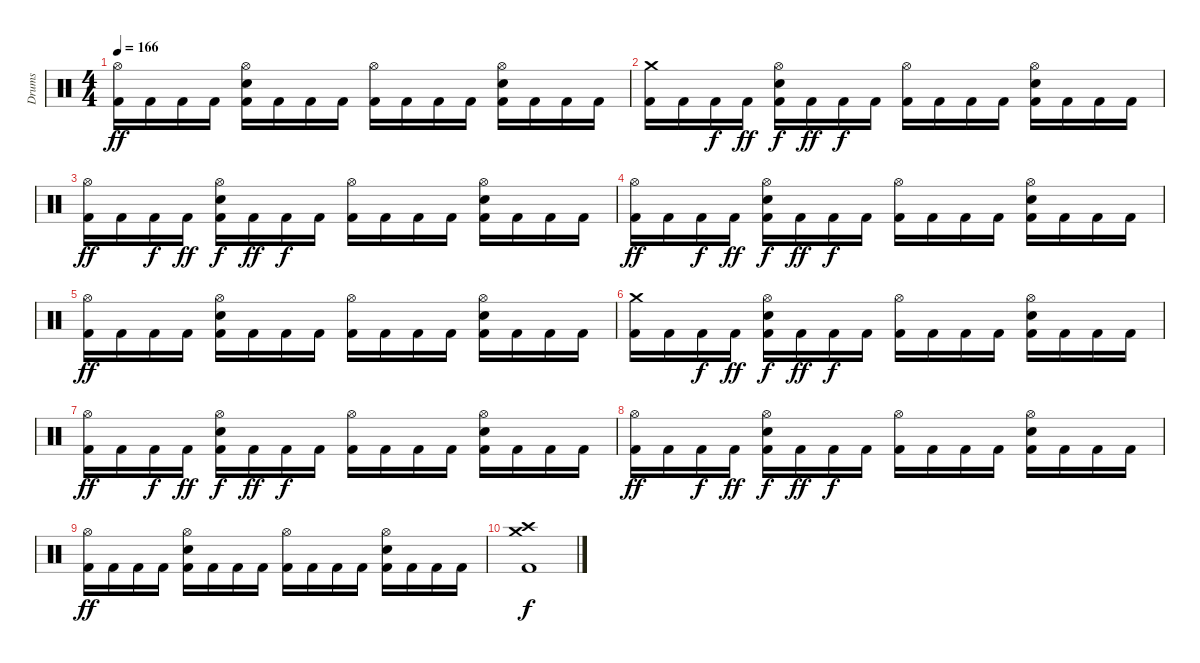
\track ("Drums" "Drums") {instrument percussion}
\staff {score}
\articulation defaults
\ts (4 4)
\tempo 166
\clef neutral
\ks c
("Hi-Hat (open)" "Kick (hit) 2").16{dy ff} "Kick (hit) 2".16 "Kick (hit) 2".16 "Kick (hit) 2".16 ("Hi-Hat (open)" "Snare (hit) 2" "Kick (hit) 2").16 "Kick (hit) 2".16 "Kick (hit) 2".16 "Kick (hit) 2".16 ("Hi-Hat (open)" "Kick (hit) 2").16 "Kick (hit) 2".16 "Kick (hit) 2".16 "Kick (hit) 2".16 ("Hi-Hat (open)" "Snare (hit) 2" "Kick (hit) 2").16 "Kick (hit) 2".16 "Kick (hit) 2".16 "Kick (hit) 2".16 |
("Crash medium (hit)" "Kick (hit) 2").16 "Kick (hit) 2".16 "Kick (hit) 2".16{dy f} "Kick (hit) 2".16{dy ff} ("Hi-Hat (open)" "Snare (hit) 2" "Kick (hit) 2").16{dy f} "Kick (hit) 2".16{dy ff} "Kick (hit) 2".16{dy f} "Kick (hit) 2".16 ("Hi-Hat (open)" "Kick (hit) 2").16 "Kick (hit) 2".16 "Kick (hit) 2".16 "Kick (hit) 2".16 ("Hi-Hat (open)" "Snare (hit) 2" "Kick (hit) 2").16 "Kick (hit) 2".16 "Kick (hit) 2".16 "Kick (hit) 2".16 |
("Hi-Hat (open)" "Kick (hit) 2").16{dy ff} "Kick (hit) 2".16 "Kick (hit) 2".16{dy f} "Kick (hit) 2".16{dy ff} ("Hi-Hat (open)" "Snare (hit) 2" "Kick (hit) 2").16{dy f} "Kick (hit) 2".16{dy ff} "Kick (hit) 2".16{dy f} "Kick (hit) 2".16 ("Hi-Hat (open)" "Kick (hit) 2").16 "Kick (hit) 2".16 "Kick (hit) 2".16 "Kick (hit) 2".16 ("Hi-Hat (open)" "Snare (hit) 2" "Kick (hit) 2").16 "Kick (hit) 2".16 "Kick (hit) 2".16 "Kick (hit) 2".16 |
("Hi-Hat (open)" "Kick (hit) 2").16{dy ff} "Kick (hit) 2".16 "Kick (hit) 2".16{dy f} "Kick (hit) 2".16{dy ff} ("Hi-Hat (open)" "Snare (hit) 2" "Kick (hit) 2").16{dy f} "Kick (hit) 2".16{dy ff} "Kick (hit) 2".16{dy f} "Kick (hit) 2".16 ("Hi-Hat (open)" "Kick (hit) 2").16 "Kick (hit) 2".16 "Kick (hit) 2".16 "Kick (hit) 2".16 ("Hi-Hat (open)" "Snare (hit) 2" "Kick (hit) 2").16 "Kick (hit) 2".16 "Kick (hit) 2".16 "Kick (hit) 2".16 |
("Hi-Hat (open)" "Kick (hit) 2").16{dy ff} "Kick (hit) 2".16 "Kick (hit) 2".16 "Kick (hit) 2".16 ("Hi-Hat (open)" "Snare (hit) 2" "Kick (hit) 2").16 "Kick (hit) 2".16 "Kick (hit) 2".16 "Kick (hit) 2".16 ("Hi-Hat (open)" "Kick (hit) 2").16 "Kick (hit) 2".16 "Kick (hit) 2".16 "Kick (hit) 2".16 ("Hi-Hat (open)" "Snare (hit) 2" "Kick (hit) 2").16 "Kick (hit) 2".16 "Kick (hit) 2".16 "Kick (hit) 2".16 |
("Crash medium (hit)" "Kick (hit) 2").16 "Kick (hit) 2".16 "Kick (hit) 2".16{dy f} "Kick (hit) 2".16{dy ff} ("Hi-Hat (open)" "Snare (hit) 2" "Kick (hit) 2").16{dy f} "Kick (hit) 2".16{dy ff} "Kick (hit) 2".16{dy f} "Kick (hit) 2".16 ("Hi-Hat (open)" "Kick (hit) 2").16 "Kick (hit) 2".16 "Kick (hit) 2".16 "Kick (hit) 2".16 ("Hi-Hat (open)" "Snare (hit) 2" "Kick (hit) 2").16 "Kick (hit) 2".16 "Kick (hit) 2".16 "Kick (hit) 2".16 |
("Hi-Hat (open)" "Kick (hit) 2").16{dy ff} "Kick (hit) 2".16 "Kick (hit) 2".16{dy f} "Kick (hit) 2".16{dy ff} ("Hi-Hat (open)" "Snare (hit) 2" "Kick (hit) 2").16{dy f} "Kick (hit) 2".16{dy ff} "Kick (hit) 2".16{dy f} "Kick (hit) 2".16 ("Hi-Hat (open)" "Kick (hit) 2").16 "Kick (hit) 2".16 "Kick (hit) 2".16 "Kick (hit) 2".16 ("Hi-Hat (open)" "Snare (hit) 2" "Kick (hit) 2").16 "Kick (hit) 2".16 "Kick (hit) 2".16 "Kick (hit) 2".16 |
("Hi-Hat (open)" "Kick (hit) 2").16{dy ff} "Kick (hit) 2".16 "Kick (hit) 2".16{dy f} "Kick (hit) 2".16{dy ff} ("Hi-Hat (open)" "Snare (hit) 2" "Kick (hit) 2").16{dy f} "Kick (hit) 2".16{dy ff} "Kick (hit) 2".16{dy f} "Kick (hit) 2".16 ("Hi-Hat (open)" "Kick (hit) 2").16 "Kick (hit) 2".16 "Kick (hit) 2".16 "Kick (hit) 2".16 ("Hi-Hat (open)" "Snare (hit) 2" "Kick (hit) 2").16 "Kick (hit) 2".16 "Kick (hit) 2".16 "Kick (hit) 2".16 |
("Hi-Hat (open)" "Kick (hit) 2").16{dy ff} "Kick (hit) 2".16 "Kick (hit) 2".16 "Kick (hit) 2".16 ("Hi-Hat (open)" "Snare (hit) 2" "Kick (hit) 2").16 "Kick (hit) 2".16 "Kick (hit) 2".16 "Kick (hit) 2".16 ("Hi-Hat (open)" "Kick (hit) 2").16 "Kick (hit) 2".16 "Kick (hit) 2".16 "Kick (hit) 2".16 ("Hi-Hat (open)" "Snare (hit) 2" "Kick (hit) 2").16 "Kick (hit) 2".16 "Kick (hit) 2".16 "Kick (hit) 2".16 |
("Crash medium (hit)" "Crash high (hit)" "Kick (hit) 2").1{dy f}
